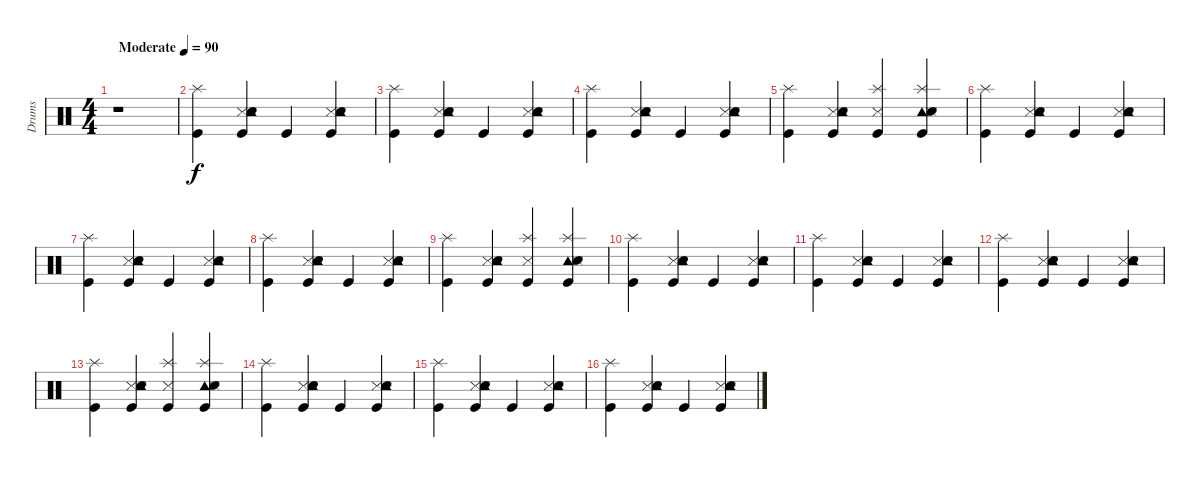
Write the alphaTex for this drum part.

\track ("Drums" "Drums") {instrument percussion}
\staff {score}
\articulation defaults
\ts (4 4)
\tempo (90 "Moderate")
\clef neutral
\ks c
r.1{dy f} |
("Kick (hit)" "Splash (hit)").4 ("Metronome (hit)" "Tambourine (hit)" "Kick (hit)" "Hand Clap (hit)").4 "Kick (hit)".4 ("Metronome (hit)" "Tambourine (hit)" "Kick (hit)" "Hand Clap (hit)").4 |
("Kick (hit)" "Splash (hit)").4 ("Metronome (hit)" "Tambourine (hit)" "Kick (hit)" "Hand Clap (hit)").4 "Kick (hit)".4 ("Metronome (hit)" "Tambourine (hit)" "Kick (hit)" "Hand Clap (hit)").4 |
("Kick (hit)" "Splash (hit)").4 ("Metronome (hit)" "Tambourine (hit)" "Kick (hit)" "Hand Clap (hit)").4 "Kick (hit)".4 ("Metronome (hit)" "Tambourine (hit)" "Kick (hit)" "Hand Clap (hit)").4 |
("Kick (hit)" "Splash (hit)").4 ("Metronome (hit)" "Tambourine (hit)" "Kick (hit)" "Hand Clap (hit)").4 ("Kick (hit)" "Splash (hit)" "Metronome (hit)").4 ("Splash (hit)" "Tambourine (hit)" "Kick (hit)" "Metronome (hit)" "Hand Clap (hit)").4 |
("Kick (hit)" "Splash (hit)").4 ("Metronome (hit)" "Tambourine (hit)" "Kick (hit)" "Hand Clap (hit)").4 "Kick (hit)".4 ("Metronome (hit)" "Tambourine (hit)" "Kick (hit)" "Hand Clap (hit)").4 |
("Kick (hit)" "Splash (hit)").4 ("Metronome (hit)" "Tambourine (hit)" "Kick (hit)" "Hand Clap (hit)").4 "Kick (hit)".4 ("Metronome (hit)" "Tambourine (hit)" "Kick (hit)" "Hand Clap (hit)").4 |
("Kick (hit)" "Splash (hit)").4 ("Metronome (hit)" "Tambourine (hit)" "Kick (hit)" "Hand Clap (hit)").4 "Kick (hit)".4 ("Metronome (hit)" "Tambourine (hit)" "Kick (hit)" "Hand Clap (hit)").4 |
("Kick (hit)" "Splash (hit)").4 ("Metronome (hit)" "Tambourine (hit)" "Kick (hit)" "Hand Clap (hit)").4 ("Kick (hit)" "Splash (hit)" "Metronome (hit)").4 ("Splash (hit)" "Tambourine (hit)" "Kick (hit)" "Metronome (hit)" "Hand Clap (hit)").4 |
("Kick (hit)" "Splash (hit)").4 ("Metronome (hit)" "Tambourine (hit)" "Kick (hit)" "Hand Clap (hit)").4 "Kick (hit)".4 ("Metronome (hit)" "Tambourine (hit)" "Kick (hit)" "Hand Clap (hit)").4 |
("Kick (hit)" "Splash (hit)").4 ("Metronome (hit)" "Tambourine (hit)" "Kick (hit)" "Hand Clap (hit)").4 "Kick (hit)".4 ("Metronome (hit)" "Tambourine (hit)" "Kick (hit)" "Hand Clap (hit)").4 |
("Kick (hit)" "Splash (hit)").4 ("Metronome (hit)" "Tambourine (hit)" "Kick (hit)" "Hand Clap (hit)").4 "Kick (hit)".4 ("Metronome (hit)" "Tambourine (hit)" "Kick (hit)" "Hand Clap (hit)").4 |
("Kick (hit)" "Splash (hit)").4 ("Metronome (hit)" "Tambourine (hit)" "Kick (hit)" "Hand Clap (hit)").4 ("Kick (hit)" "Splash (hit)" "Metronome (hit)").4 ("Splash (hit)" "Tambourine (hit)" "Kick (hit)" "Metronome (hit)" "Hand Clap (hit)").4 |
("Kick (hit)" "Splash (hit)").4 ("Metronome (hit)" "Tambourine (hit)" "Kick (hit)" "Hand Clap (hit)").4 "Kick (hit)".4 ("Metronome (hit)" "Tambourine (hit)" "Kick (hit)" "Hand Clap (hit)").4 |
("Kick (hit)" "Splash (hit)").4 ("Metronome (hit)" "Tambourine (hit)" "Kick (hit)" "Hand Clap (hit)").4 "Kick (hit)".4 ("Metronome (hit)" "Tambourine (hit)" "Kick (hit)" "Hand Clap (hit)").4 |
("Kick (hit)" "Splash (hit)").4 ("Metronome (hit)" "Tambourine (hit)" "Kick (hit)" "Hand Clap (hit)").4 "Kick (hit)".4 ("Metronome (hit)" "Tambourine (hit)" "Kick (hit)" "Hand Clap (hit)").4
